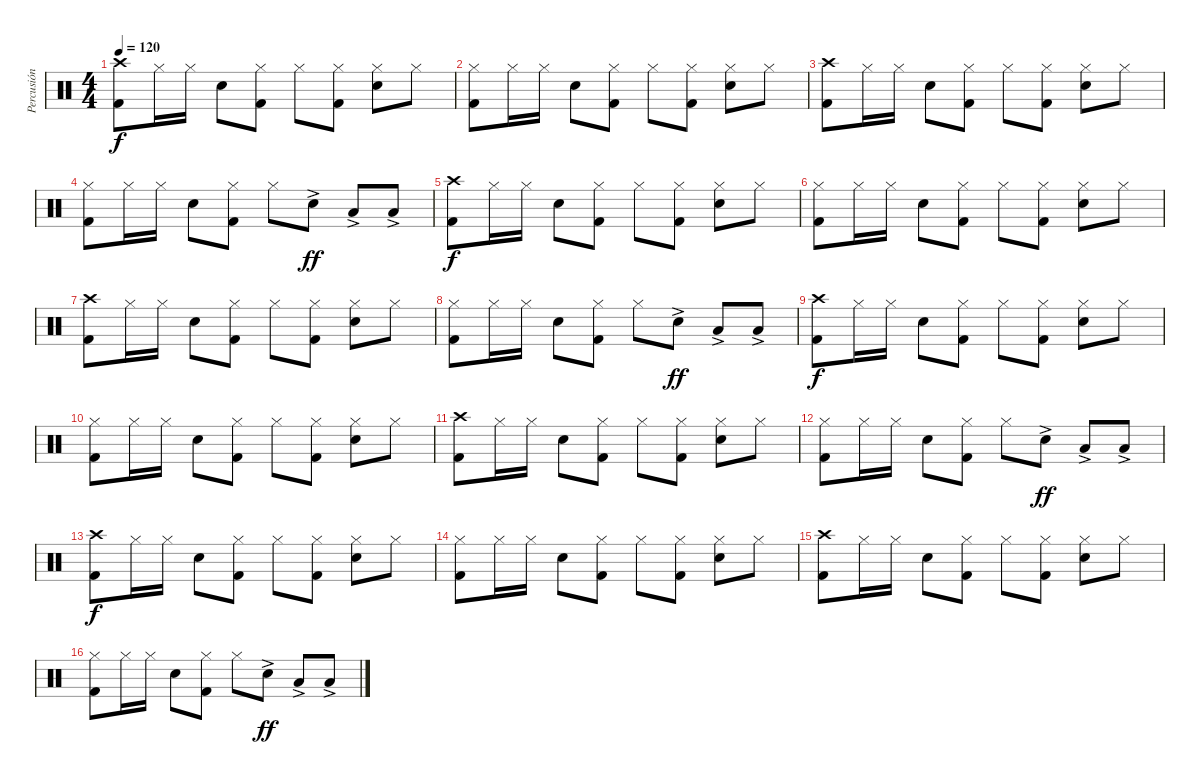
\track ("Percusión" "Percusión") {instrument percussion}
\staff {score}
\articulation defaults
\ts (4 4)
\tempo 120
\clef neutral
\ks c
("Crash high (hit)" "Kick (hit) 2").8{dy f} "Hi-Hat (closed)".16 "Hi-Hat (closed)".16 "Snare (hit) 2".8 ("Hi-Hat (closed)" "Kick (hit) 2").8 "Hi-Hat (closed)".8 ("Hi-Hat (closed)" "Kick (hit) 2").8 ("Hi-Hat (closed)" "Snare (hit) 2").8 "Hi-Hat (closed)".8 |
("Hi-Hat (closed)" "Kick (hit) 2").8 "Hi-Hat (closed)".16 "Hi-Hat (closed)".16 "Snare (hit) 2".8 ("Hi-Hat (closed)" "Kick (hit) 2").8 "Hi-Hat (closed)".8 ("Hi-Hat (closed)" "Kick (hit) 2").8 ("Hi-Hat (closed)" "Snare (hit) 2").8 "Hi-Hat (closed)".8 |
("Crash high (hit)" "Kick (hit) 2").8 "Hi-Hat (closed)".16 "Hi-Hat (closed)".16 "Snare (hit) 2".8 ("Hi-Hat (closed)" "Kick (hit) 2").8 "Hi-Hat (closed)".8 ("Hi-Hat (closed)" "Kick (hit) 2").8 ("Hi-Hat (closed)" "Snare (hit) 2").8 "Hi-Hat (closed)".8 |
("Hi-Hat (closed)" "Kick (hit) 2").8 "Hi-Hat (closed)".16 "Hi-Hat (closed)".16 "Snare (hit) 2".8 ("Hi-Hat (closed)" "Kick (hit) 2").8 "Hi-Hat (closed)".8 "Snare (hit) 2"{ac}.8{dy ff} "Low Tom (hit)"{ac}.8 "Low Floor Tom (hit)"{ac}.8 |
("Crash high (hit)" "Kick (hit) 2").8{dy f} "Hi-Hat (closed)".16 "Hi-Hat (closed)".16 "Snare (hit) 2".8 ("Hi-Hat (closed)" "Kick (hit) 2").8 "Hi-Hat (closed)".8 ("Hi-Hat (closed)" "Kick (hit) 2").8 ("Hi-Hat (closed)" "Snare (hit) 2").8 "Hi-Hat (closed)".8 |
("Hi-Hat (closed)" "Kick (hit) 2").8 "Hi-Hat (closed)".16 "Hi-Hat (closed)".16 "Snare (hit) 2".8 ("Hi-Hat (closed)" "Kick (hit) 2").8 "Hi-Hat (closed)".8 ("Hi-Hat (closed)" "Kick (hit) 2").8 ("Hi-Hat (closed)" "Snare (hit) 2").8 "Hi-Hat (closed)".8 |
("Crash high (hit)" "Kick (hit) 2").8 "Hi-Hat (closed)".16 "Hi-Hat (closed)".16 "Snare (hit) 2".8 ("Hi-Hat (closed)" "Kick (hit) 2").8 "Hi-Hat (closed)".8 ("Hi-Hat (closed)" "Kick (hit) 2").8 ("Hi-Hat (closed)" "Snare (hit) 2").8 "Hi-Hat (closed)".8 |
("Hi-Hat (closed)" "Kick (hit) 2").8 "Hi-Hat (closed)".16 "Hi-Hat (closed)".16 "Snare (hit) 2".8 ("Hi-Hat (closed)" "Kick (hit) 2").8 "Hi-Hat (closed)".8 "Snare (hit) 2"{ac}.8{dy ff} "Low Tom (hit)"{ac}.8 "Low Floor Tom (hit)"{ac}.8 |
("Crash high (hit)" "Kick (hit) 2").8{dy f} "Hi-Hat (closed)".16 "Hi-Hat (closed)".16 "Snare (hit) 2".8 ("Hi-Hat (closed)" "Kick (hit) 2").8 "Hi-Hat (closed)".8 ("Hi-Hat (closed)" "Kick (hit) 2").8 ("Hi-Hat (closed)" "Snare (hit) 2").8 "Hi-Hat (closed)".8 |
("Hi-Hat (closed)" "Kick (hit) 2").8 "Hi-Hat (closed)".16 "Hi-Hat (closed)".16 "Snare (hit) 2".8 ("Hi-Hat (closed)" "Kick (hit) 2").8 "Hi-Hat (closed)".8 ("Hi-Hat (closed)" "Kick (hit) 2").8 ("Hi-Hat (closed)" "Snare (hit) 2").8 "Hi-Hat (closed)".8 |
("Crash high (hit)" "Kick (hit) 2").8 "Hi-Hat (closed)".16 "Hi-Hat (closed)".16 "Snare (hit) 2".8 ("Hi-Hat (closed)" "Kick (hit) 2").8 "Hi-Hat (closed)".8 ("Hi-Hat (closed)" "Kick (hit) 2").8 ("Hi-Hat (closed)" "Snare (hit) 2").8 "Hi-Hat (closed)".8 |
("Hi-Hat (closed)" "Kick (hit) 2").8 "Hi-Hat (closed)".16 "Hi-Hat (closed)".16 "Snare (hit) 2".8 ("Hi-Hat (closed)" "Kick (hit) 2").8 "Hi-Hat (closed)".8 "Snare (hit) 2"{ac}.8{dy ff} "Low Tom (hit)"{ac}.8 "Low Floor Tom (hit)"{ac}.8 |
("Crash high (hit)" "Kick (hit) 2").8{dy f} "Hi-Hat (closed)".16 "Hi-Hat (closed)".16 "Snare (hit) 2".8 ("Hi-Hat (closed)" "Kick (hit) 2").8 "Hi-Hat (closed)".8 ("Hi-Hat (closed)" "Kick (hit) 2").8 ("Hi-Hat (closed)" "Snare (hit) 2").8 "Hi-Hat (closed)".8 |
("Hi-Hat (closed)" "Kick (hit) 2").8 "Hi-Hat (closed)".16 "Hi-Hat (closed)".16 "Snare (hit) 2".8 ("Hi-Hat (closed)" "Kick (hit) 2").8 "Hi-Hat (closed)".8 ("Hi-Hat (closed)" "Kick (hit) 2").8 ("Hi-Hat (closed)" "Snare (hit) 2").8 "Hi-Hat (closed)".8 |
("Crash high (hit)" "Kick (hit) 2").8 "Hi-Hat (closed)".16 "Hi-Hat (closed)".16 "Snare (hit) 2".8 ("Hi-Hat (closed)" "Kick (hit) 2").8 "Hi-Hat (closed)".8 ("Hi-Hat (closed)" "Kick (hit) 2").8 ("Hi-Hat (closed)" "Snare (hit) 2").8 "Hi-Hat (closed)".8 |
("Hi-Hat (closed)" "Kick (hit) 2").8 "Hi-Hat (closed)".16 "Hi-Hat (closed)".16 "Snare (hit) 2".8 ("Hi-Hat (closed)" "Kick (hit) 2").8 "Hi-Hat (closed)".8 "Snare (hit) 2"{ac}.8{dy ff} "Low Tom (hit)"{ac}.8 "Low Floor Tom (hit)"{ac}.8
